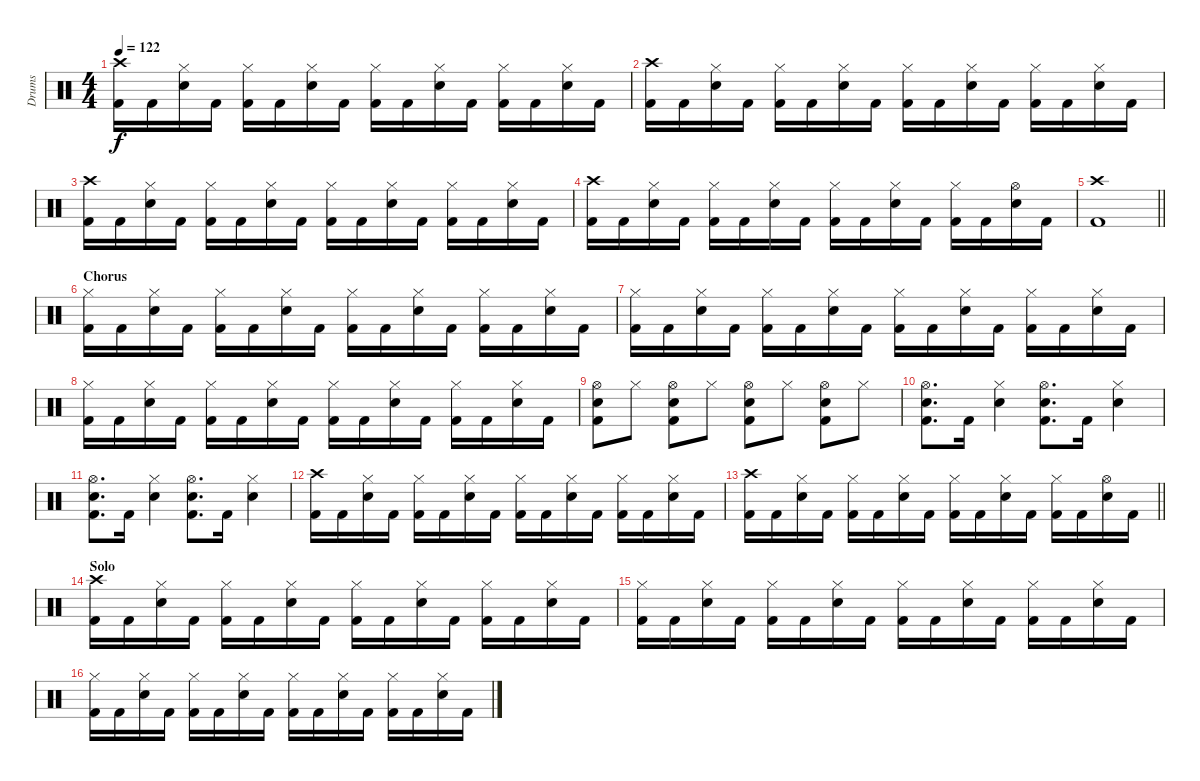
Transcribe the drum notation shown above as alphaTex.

\track ("Drums" "Drums") {instrument percussion}
\staff {score}
\articulation defaults
\ts (4 4)
\tempo 122
\clef neutral
\ks c
("Crash high (hit)" "Kick (hit) 2").16{dy f} "Kick (hit) 2".16 ("Hi-Hat (closed)" "Snare (hit) 2").16 "Kick (hit) 2".16 ("Hi-Hat (closed)" "Kick (hit) 2").16 "Kick (hit) 2".16 ("Hi-Hat (closed)" "Snare (hit) 2").16 "Kick (hit) 2".16 ("Hi-Hat (closed)" "Kick (hit) 2").16 "Kick (hit) 2".16 ("Hi-Hat (closed)" "Snare (hit) 2").16 "Kick (hit) 2".16 ("Hi-Hat (closed)" "Kick (hit) 2").16 "Kick (hit) 2".16 ("Hi-Hat (closed)" "Snare (hit) 2").16 "Kick (hit) 2".16 |
("Crash high (hit)" "Kick (hit) 2").16 "Kick (hit) 2".16 ("Hi-Hat (closed)" "Snare (hit) 2").16 "Kick (hit) 2".16 ("Hi-Hat (closed)" "Kick (hit) 2").16 "Kick (hit) 2".16 ("Hi-Hat (closed)" "Snare (hit) 2").16 "Kick (hit) 2".16 ("Hi-Hat (closed)" "Kick (hit) 2").16 "Kick (hit) 2".16 ("Hi-Hat (closed)" "Snare (hit) 2").16 "Kick (hit) 2".16 ("Hi-Hat (closed)" "Kick (hit) 2").16 "Kick (hit) 2".16 ("Hi-Hat (closed)" "Snare (hit) 2").16 "Kick (hit) 2".16 |
("Crash high (hit)" "Kick (hit) 2").16 "Kick (hit) 2".16 ("Hi-Hat (closed)" "Snare (hit) 2").16 "Kick (hit) 2".16 ("Hi-Hat (closed)" "Kick (hit) 2").16 "Kick (hit) 2".16 ("Hi-Hat (closed)" "Snare (hit) 2").16 "Kick (hit) 2".16 ("Hi-Hat (closed)" "Kick (hit) 2").16 "Kick (hit) 2".16 ("Hi-Hat (closed)" "Snare (hit) 2").16 "Kick (hit) 2".16 ("Hi-Hat (closed)" "Kick (hit) 2").16 "Kick (hit) 2".16 ("Hi-Hat (closed)" "Snare (hit) 2").16 "Kick (hit) 2".16 |
("Crash high (hit)" "Kick (hit) 2").16 "Kick (hit) 2".16 ("Hi-Hat (closed)" "Snare (hit) 2").16 "Kick (hit) 2".16 ("Hi-Hat (closed)" "Kick (hit) 2").16 "Kick (hit) 2".16 ("Hi-Hat (closed)" "Snare (hit) 2").16 "Kick (hit) 2".16 ("Hi-Hat (closed)" "Kick (hit) 2").16 "Kick (hit) 2".16 ("Hi-Hat (closed)" "Snare (hit) 2").16 "Kick (hit) 2".16 ("Hi-Hat (closed)" "Kick (hit) 2").16 "Kick (hit) 2".16 ("Hi-Hat (open)" "Snare (hit) 2").16 "Kick (hit) 2".16 |
\barLineRight lightlight
("Crash high (hit)" "Kick (hit) 2").1 |
\section ("" "Chorus")
("Hi-Hat (closed)" "Kick (hit) 2").16 "Kick (hit) 2".16 ("Hi-Hat (closed)" "Snare (hit) 2").16 "Kick (hit) 2".16 ("Hi-Hat (closed)" "Kick (hit) 2").16 "Kick (hit) 2".16 ("Hi-Hat (closed)" "Snare (hit) 2").16 "Kick (hit) 2".16 ("Hi-Hat (closed)" "Kick (hit) 2").16 "Kick (hit) 2".16 ("Hi-Hat (closed)" "Snare (hit) 2").16 "Kick (hit) 2".16 ("Hi-Hat (closed)" "Kick (hit) 2").16 "Kick (hit) 2".16 ("Hi-Hat (closed)" "Snare (hit) 2").16 "Kick (hit) 2".16 |
("Hi-Hat (closed)" "Kick (hit) 2").16 "Kick (hit) 2".16 ("Hi-Hat (closed)" "Snare (hit) 2").16 "Kick (hit) 2".16 ("Hi-Hat (closed)" "Kick (hit) 2").16 "Kick (hit) 2".16 ("Hi-Hat (closed)" "Snare (hit) 2").16 "Kick (hit) 2".16 ("Hi-Hat (closed)" "Kick (hit) 2").16 "Kick (hit) 2".16 ("Hi-Hat (closed)" "Snare (hit) 2").16 "Kick (hit) 2".16 ("Hi-Hat (closed)" "Kick (hit) 2").16 "Kick (hit) 2".16 ("Hi-Hat (closed)" "Snare (hit) 2").16 "Kick (hit) 2".16 |
("Hi-Hat (closed)" "Kick (hit) 2").16 "Kick (hit) 2".16 ("Hi-Hat (closed)" "Snare (hit) 2").16 "Kick (hit) 2".16 ("Hi-Hat (closed)" "Kick (hit) 2").16 "Kick (hit) 2".16 ("Hi-Hat (closed)" "Snare (hit) 2").16 "Kick (hit) 2".16 ("Hi-Hat (closed)" "Kick (hit) 2").16 "Kick (hit) 2".16 ("Hi-Hat (closed)" "Snare (hit) 2").16 "Kick (hit) 2".16 ("Hi-Hat (closed)" "Kick (hit) 2").16 "Kick (hit) 2".16 ("Hi-Hat (closed)" "Snare (hit) 2").16 "Kick (hit) 2".16 |
("Hi-Hat (open)" "Snare (hit) 2" "Kick (hit) 2").8 "Hi-Hat (closed)".8 ("Hi-Hat (open)" "Snare (hit) 2" "Kick (hit) 2").8 "Hi-Hat (closed)".8 ("Hi-Hat (open)" "Snare (hit) 2" "Kick (hit) 2").8 "Hi-Hat (closed)".8 ("Hi-Hat (open)" "Snare (hit) 2" "Kick (hit) 2").8 "Hi-Hat (closed)".8 |
("Hi-Hat (open)" "Snare (hit) 2" "Kick (hit) 2").8{d} "Kick (hit) 2".16 ("Hi-Hat (closed)" "Snare (hit) 2").4 ("Hi-Hat (open)" "Snare (hit) 2" "Kick (hit) 2").8{d} "Kick (hit) 2".16 ("Hi-Hat (closed)" "Snare (hit) 2").4 |
("Hi-Hat (open)" "Snare (hit) 2" "Kick (hit) 2").8{d} "Kick (hit) 2".16 ("Hi-Hat (closed)" "Snare (hit) 2").4 ("Hi-Hat (open)" "Snare (hit) 2" "Kick (hit) 2").8{d} "Kick (hit) 2".16 ("Hi-Hat (closed)" "Snare (hit) 2").4 |
("Crash high (hit)" "Kick (hit) 2").16 "Kick (hit) 2".16 ("Hi-Hat (closed)" "Snare (hit) 2").16 "Kick (hit) 2".16 ("Hi-Hat (closed)" "Kick (hit) 2").16 "Kick (hit) 2".16 ("Hi-Hat (closed)" "Snare (hit) 2").16 "Kick (hit) 2".16 ("Hi-Hat (closed)" "Kick (hit) 2").16 "Kick (hit) 2".16 ("Hi-Hat (closed)" "Snare (hit) 2").16 "Kick (hit) 2".16 ("Hi-Hat (closed)" "Kick (hit) 2").16 "Kick (hit) 2".16 ("Hi-Hat (closed)" "Snare (hit) 2").16 "Kick (hit) 2".16 |
\barLineRight lightlight
("Crash high (hit)" "Kick (hit) 2").16 "Kick (hit) 2".16 ("Hi-Hat (closed)" "Snare (hit) 2").16 "Kick (hit) 2".16 ("Hi-Hat (closed)" "Kick (hit) 2").16 "Kick (hit) 2".16 ("Hi-Hat (closed)" "Snare (hit) 2").16 "Kick (hit) 2".16 ("Hi-Hat (closed)" "Kick (hit) 2").16 "Kick (hit) 2".16 ("Hi-Hat (closed)" "Snare (hit) 2").16 "Kick (hit) 2".16 ("Hi-Hat (closed)" "Kick (hit) 2").16 "Kick (hit) 2".16 ("Hi-Hat (open)" "Snare (hit) 2").16 "Kick (hit) 2".16 |
\section ("" "Solo")
("Crash high (hit)" "Kick (hit) 2").16 "Kick (hit) 2".16 ("Hi-Hat (closed)" "Snare (hit) 2").16 "Kick (hit) 2".16 ("Hi-Hat (closed)" "Kick (hit) 2").16 "Kick (hit) 2".16 ("Hi-Hat (closed)" "Snare (hit) 2").16 "Kick (hit) 2".16 ("Hi-Hat (closed)" "Kick (hit) 2").16 "Kick (hit) 2".16 ("Hi-Hat (closed)" "Snare (hit) 2").16 "Kick (hit) 2".16 ("Hi-Hat (closed)" "Kick (hit) 2").16 "Kick (hit) 2".16 ("Hi-Hat (closed)" "Snare (hit) 2").16 "Kick (hit) 2".16 |
("Hi-Hat (closed)" "Kick (hit) 2").16 "Kick (hit) 2".16 ("Hi-Hat (closed)" "Snare (hit) 2").16 "Kick (hit) 2".16 ("Hi-Hat (closed)" "Kick (hit) 2").16 "Kick (hit) 2".16 ("Hi-Hat (closed)" "Snare (hit) 2").16 "Kick (hit) 2".16 ("Hi-Hat (closed)" "Kick (hit) 2").16 "Kick (hit) 2".16 ("Hi-Hat (closed)" "Snare (hit) 2").16 "Kick (hit) 2".16 ("Hi-Hat (closed)" "Kick (hit) 2").16 "Kick (hit) 2".16 ("Hi-Hat (closed)" "Snare (hit) 2").16 "Kick (hit) 2".16 |
("Hi-Hat (closed)" "Kick (hit) 2").16 "Kick (hit) 2".16 ("Hi-Hat (closed)" "Snare (hit) 2").16 "Kick (hit) 2".16 ("Hi-Hat (closed)" "Kick (hit) 2").16 "Kick (hit) 2".16 ("Hi-Hat (closed)" "Snare (hit) 2").16 "Kick (hit) 2".16 ("Hi-Hat (closed)" "Kick (hit) 2").16 "Kick (hit) 2".16 ("Hi-Hat (closed)" "Snare (hit) 2").16 "Kick (hit) 2".16 ("Hi-Hat (closed)" "Kick (hit) 2").16 "Kick (hit) 2".16 ("Hi-Hat (closed)" "Snare (hit) 2").16 "Kick (hit) 2".16
